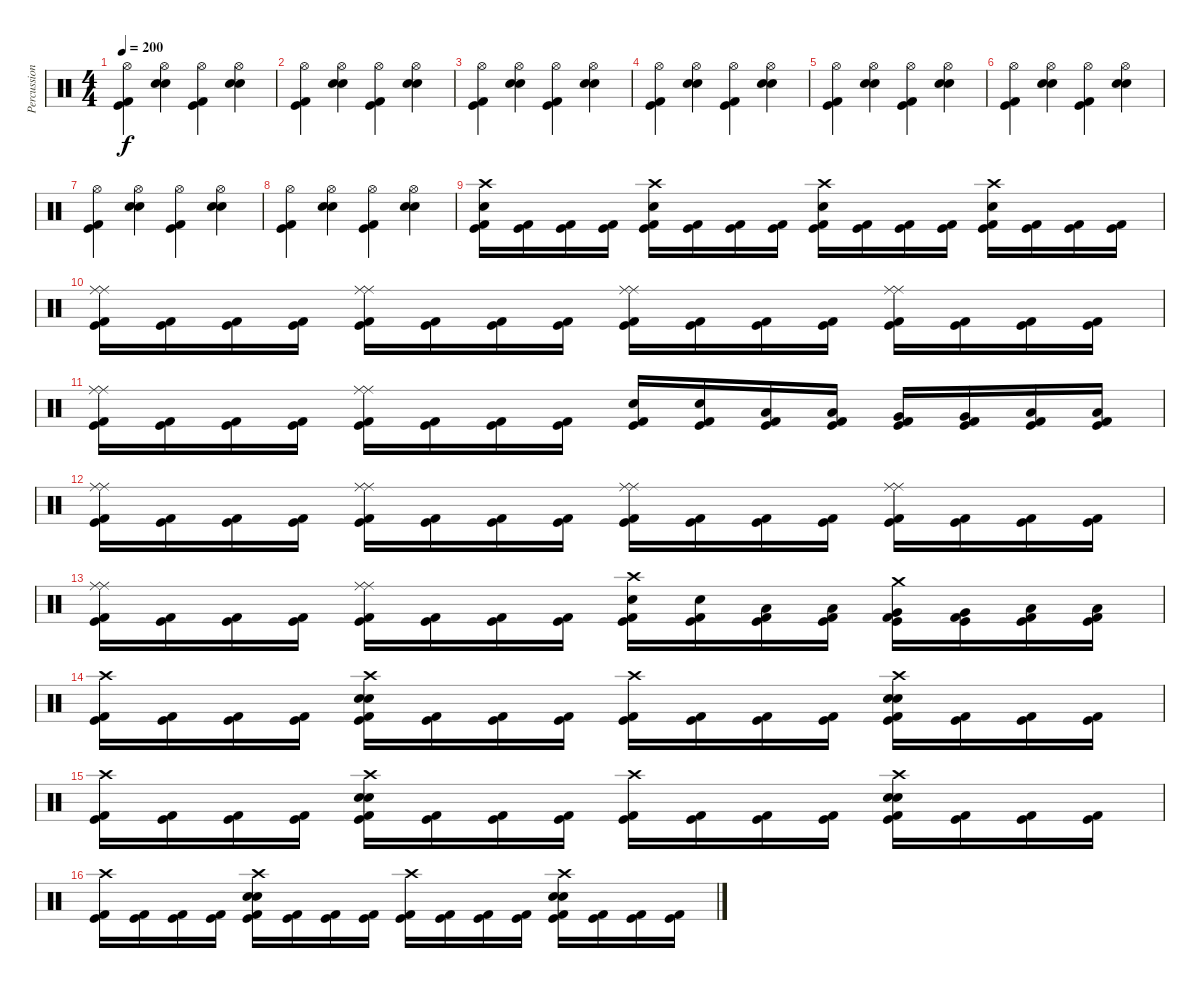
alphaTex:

\track ("Percussion" "Percussion") {instrument percussion}
\staff {score}
\articulation defaults
\ts (4 4)
\tempo 200
\clef neutral
\ks c
("Hi-Hat (open)" "Kick (hit) 2" "Kick (hit)").4{dy f} ("Hi-Hat (open)" "Electric Snare (hit)" "Electric Snare (hit)").4 ("Hi-Hat (open)" "Kick (hit) 2" "Kick (hit)").4 ("Hi-Hat (open)" "Electric Snare (hit)" "Electric Snare (hit)").4 |
("Hi-Hat (open)" "Kick (hit) 2" "Kick (hit)").4 ("Hi-Hat (open)" "Electric Snare (hit)" "Electric Snare (hit)").4 ("Hi-Hat (open)" "Kick (hit) 2" "Kick (hit)").4 ("Hi-Hat (open)" "Electric Snare (hit)" "Electric Snare (hit)").4 |
("Hi-Hat (open)" "Kick (hit) 2" "Kick (hit)").4 ("Hi-Hat (open)" "Electric Snare (hit)" "Electric Snare (hit)").4 ("Hi-Hat (open)" "Kick (hit) 2" "Kick (hit)").4 ("Hi-Hat (open)" "Electric Snare (hit)" "Electric Snare (hit)").4 |
("Hi-Hat (open)" "Kick (hit) 2" "Kick (hit)").4 ("Hi-Hat (open)" "Electric Snare (hit)" "Electric Snare (hit)").4 ("Hi-Hat (open)" "Kick (hit) 2" "Kick (hit)").4 ("Hi-Hat (open)" "Electric Snare (hit)" "Electric Snare (hit)").4 |
("Hi-Hat (open)" "Kick (hit) 2" "Kick (hit)").4 ("Hi-Hat (open)" "Electric Snare (hit)" "Electric Snare (hit)").4 ("Hi-Hat (open)" "Kick (hit) 2" "Kick (hit)").4 ("Hi-Hat (open)" "Electric Snare (hit)" "Electric Snare (hit)").4 |
("Hi-Hat (open)" "Kick (hit) 2" "Kick (hit)").4 ("Hi-Hat (open)" "Electric Snare (hit)" "Electric Snare (hit)").4 ("Hi-Hat (open)" "Kick (hit) 2" "Kick (hit)").4 ("Hi-Hat (open)" "Electric Snare (hit)" "Electric Snare (hit)").4 |
("Hi-Hat (open)" "Kick (hit) 2" "Kick (hit)").4 ("Hi-Hat (open)" "Electric Snare (hit)" "Electric Snare (hit)").4 ("Hi-Hat (open)" "Kick (hit) 2" "Kick (hit)").4 ("Hi-Hat (open)" "Electric Snare (hit)" "Electric Snare (hit)").4 |
("Hi-Hat (open)" "Kick (hit) 2" "Kick (hit)").4 ("Hi-Hat (open)" "Electric Snare (hit)" "Electric Snare (hit)").4 ("Hi-Hat (open)" "Kick (hit) 2" "Kick (hit)").4 ("Hi-Hat (open)" "Electric Snare (hit)" "Electric Snare (hit)").4 |
("Kick (hit) 2" "Crash high (hit)" "Electric Snare (hit)" "Kick (hit)").16 ("Kick (hit) 2" "Kick (hit)").16 ("Kick (hit) 2" "Kick (hit)").16 ("Kick (hit) 2" "Kick (hit)").16 ("Kick (hit) 2" "Crash high (hit)" "Electric Snare (hit)" "Kick (hit)").16 ("Kick (hit) 2" "Kick (hit)").16 ("Kick (hit) 2" "Kick (hit)").16 ("Kick (hit) 2" "Kick (hit)").16 ("Kick (hit) 2" "Crash high (hit)" "Electric Snare (hit)" "Kick (hit)").16 ("Kick (hit) 2" "Kick (hit)").16 ("Kick (hit) 2" "Kick (hit)").16 ("Kick (hit) 2" "Kick (hit)").16 ("Kick (hit) 2" "Crash high (hit)" "Electric Snare (hit)" "Kick (hit)").16 ("Kick (hit) 2" "Kick (hit)").16 ("Kick (hit) 2" "Kick (hit)").16 ("Kick (hit) 2" "Kick (hit)").16 |
("Ride (middle)" "Ride (middle)" "Kick (hit) 2" "Kick (hit)").16 ("Kick (hit) 2" "Kick (hit)").16 ("Kick (hit) 2" "Kick (hit)").16 ("Kick (hit) 2" "Kick (hit)").16 ("Ride (middle)" "Ride (middle)" "Kick (hit) 2" "Kick (hit)").16 ("Kick (hit) 2" "Kick (hit)").16 ("Kick (hit) 2" "Kick (hit)").16 ("Kick (hit) 2" "Kick (hit)").16 ("Ride (middle)" "Ride (middle)" "Kick (hit) 2" "Kick (hit)").16 ("Kick (hit) 2" "Kick (hit)").16 ("Kick (hit) 2" "Kick (hit)").16 ("Kick (hit) 2" "Kick (hit)").16 ("Ride (middle)" "Ride (middle)" "Kick (hit) 2" "Kick (hit)").16 ("Kick (hit) 2" "Kick (hit)").16 ("Kick (hit) 2" "Kick (hit)").16 ("Kick (hit) 2" "Kick (hit)").16 |
("Ride (middle)" "Ride (middle)" "Kick (hit) 2" "Kick (hit)").16 ("Kick (hit) 2" "Kick (hit)").16 ("Kick (hit) 2" "Kick (hit)").16 ("Kick (hit) 2" "Kick (hit)").16 ("Ride (middle)" "Ride (middle)" "Kick (hit) 2" "Kick (hit)").16 ("Kick (hit) 2" "Kick (hit)").16 ("Kick (hit) 2" "Kick (hit)").16 ("Kick (hit) 2" "Kick (hit)").16 ("Electric Snare (hit)" "Kick (hit) 2" "Kick (hit)").16 ("Electric Snare (hit)" "Kick (hit) 2" "Kick (hit)").16 ("Low Tom (hit)" "Kick (hit) 2" "Kick (hit)").16 ("Low Tom (hit)" "Kick (hit) 2" "Kick (hit)").16 ("Very Low Tom (hit)" "Kick (hit) 2" "Kick (hit)").16 ("Very Low Tom (hit)" "Kick (hit) 2" "Kick (hit)").16 ("Low Floor Tom (hit)" "Kick (hit) 2" "Kick (hit)").16 ("Low Floor Tom (hit)" "Kick (hit) 2" "Kick (hit)").16 |
("Ride (middle)" "Ride (middle)" "Kick (hit) 2" "Kick (hit)").16 ("Kick (hit) 2" "Kick (hit)").16 ("Kick (hit) 2" "Kick (hit)").16 ("Kick (hit) 2" "Kick (hit)").16 ("Ride (middle)" "Ride (middle)" "Kick (hit) 2" "Kick (hit)").16 ("Kick (hit) 2" "Kick (hit)").16 ("Kick (hit) 2" "Kick (hit)").16 ("Kick (hit) 2" "Kick (hit)").16 ("Ride (middle)" "Ride (middle)" "Kick (hit) 2" "Kick (hit)").16 ("Kick (hit) 2" "Kick (hit)").16 ("Kick (hit) 2" "Kick (hit)").16 ("Kick (hit) 2" "Kick (hit)").16 ("Ride (middle)" "Ride (middle)" "Kick (hit) 2" "Kick (hit)").16 ("Kick (hit) 2" "Kick (hit)").16 ("Kick (hit) 2" "Kick (hit)").16 ("Kick (hit) 2" "Kick (hit)").16 |
("Ride (middle)" "Ride (middle)" "Kick (hit) 2" "Kick (hit)").16 ("Kick (hit) 2" "Kick (hit)").16 ("Kick (hit) 2" "Kick (hit)").16 ("Kick (hit) 2" "Kick (hit)").16 ("Ride (middle)" "Ride (middle)" "Kick (hit) 2" "Kick (hit)").16 ("Kick (hit) 2" "Kick (hit)").16 ("Kick (hit) 2" "Kick (hit)").16 ("Kick (hit) 2" "Kick (hit)").16 ("Crash high (hit)" "Electric Snare (hit)" "Kick (hit) 2" "Kick (hit)").16 ("Electric Snare (hit)" "Kick (hit) 2" "Kick (hit)").16 ("Low Tom (hit)" "Kick (hit) 2" "Kick (hit)").16 ("Low Tom (hit)" "Kick (hit) 2" "Kick (hit)").16 ("Crash medium (hit)" "Very Low Tom (hit)" "Kick (hit) 2" "Kick (hit)").16 ("Very Low Tom (hit)" "Kick (hit) 2" "Kick (hit)").16 ("Low Floor Tom (hit)" "Kick (hit) 2" "Kick (hit)").16 ("Low Floor Tom (hit)" "Kick (hit) 2" "Kick (hit)").16 |
("Crash high (hit)" "Kick (hit) 2" "Kick (hit)").16 ("Kick (hit) 2" "Kick (hit)").16 ("Kick (hit) 2" "Kick (hit)").16 ("Kick (hit) 2" "Kick (hit)").16 ("Electric Snare (hit)" "Electric Snare (hit)" "Crash high (hit)" "Kick (hit) 2" "Kick (hit)").16 ("Kick (hit) 2" "Kick (hit)").16 ("Kick (hit) 2" "Kick (hit)").16 ("Kick (hit) 2" "Kick (hit)").16 ("Crash high (hit)" "Kick (hit) 2" "Kick (hit)").16 ("Kick (hit) 2" "Kick (hit)").16 ("Kick (hit) 2" "Kick (hit)").16 ("Kick (hit) 2" "Kick (hit)").16 ("Electric Snare (hit)" "Electric Snare (hit)" "Crash high (hit)" "Kick (hit) 2" "Kick (hit)").16 ("Kick (hit) 2" "Kick (hit)").16 ("Kick (hit) 2" "Kick (hit)").16 ("Kick (hit) 2" "Kick (hit)").16 |
("Crash high (hit)" "Kick (hit) 2" "Kick (hit)").16 ("Kick (hit) 2" "Kick (hit)").16 ("Kick (hit) 2" "Kick (hit)").16 ("Kick (hit) 2" "Kick (hit)").16 ("Electric Snare (hit)" "Electric Snare (hit)" "Crash high (hit)" "Kick (hit) 2" "Kick (hit)").16 ("Kick (hit) 2" "Kick (hit)").16 ("Kick (hit) 2" "Kick (hit)").16 ("Kick (hit) 2" "Kick (hit)").16 ("Crash high (hit)" "Kick (hit) 2" "Kick (hit)").16 ("Kick (hit) 2" "Kick (hit)").16 ("Kick (hit) 2" "Kick (hit)").16 ("Kick (hit) 2" "Kick (hit)").16 ("Electric Snare (hit)" "Electric Snare (hit)" "Crash high (hit)" "Kick (hit) 2" "Kick (hit)").16 ("Kick (hit) 2" "Kick (hit)").16 ("Kick (hit) 2" "Kick (hit)").16 ("Kick (hit) 2" "Kick (hit)").16 |
("Crash high (hit)" "Kick (hit) 2" "Kick (hit)").16 ("Kick (hit) 2" "Kick (hit)").16 ("Kick (hit) 2" "Kick (hit)").16 ("Kick (hit) 2" "Kick (hit)").16 ("Electric Snare (hit)" "Electric Snare (hit)" "Crash high (hit)" "Kick (hit) 2" "Kick (hit)").16 ("Kick (hit) 2" "Kick (hit)").16 ("Kick (hit) 2" "Kick (hit)").16 ("Kick (hit) 2" "Kick (hit)").16 ("Crash high (hit)" "Kick (hit) 2" "Kick (hit)").16 ("Kick (hit) 2" "Kick (hit)").16 ("Kick (hit) 2" "Kick (hit)").16 ("Kick (hit) 2" "Kick (hit)").16 ("Electric Snare (hit)" "Electric Snare (hit)" "Crash high (hit)" "Kick (hit) 2" "Kick (hit)").16 ("Kick (hit) 2" "Kick (hit)").16 ("Kick (hit) 2" "Kick (hit)").16 ("Kick (hit) 2" "Kick (hit)").16
